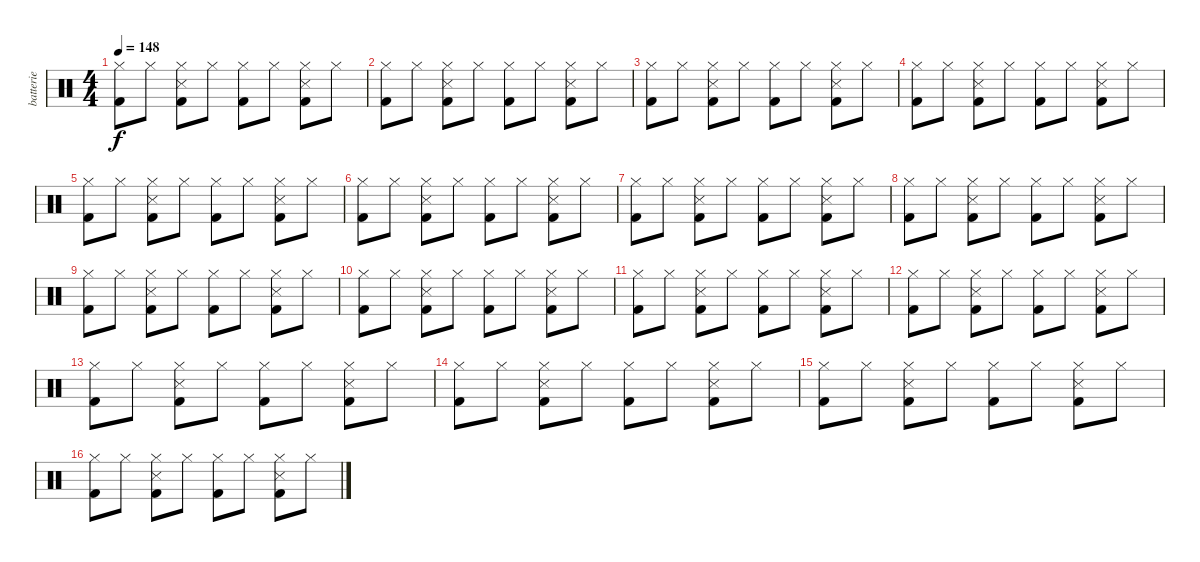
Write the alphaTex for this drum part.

\track ("batterie" "batterie") {instrument percussion}
\staff {score}
\articulation defaults
\ts (4 4)
\tempo 148
\clef neutral
\ks c
("Hi-Hat (closed)" "Kick (hit) 2").8{dy f} "Hi-Hat (closed)".8 ("Hi-Hat (closed)" "Snare (side stick) 3" "Kick (hit) 2").8 "Hi-Hat (closed)".8 ("Hi-Hat (closed)" "Kick (hit) 2").8 "Hi-Hat (closed)".8 ("Hi-Hat (closed)" "Snare (side stick) 3" "Kick (hit) 2").8 "Hi-Hat (closed)".8 |
("Hi-Hat (closed)" "Kick (hit) 2").8 "Hi-Hat (closed)".8 ("Hi-Hat (closed)" "Snare (side stick) 3" "Kick (hit) 2").8 "Hi-Hat (closed)".8 ("Hi-Hat (closed)" "Kick (hit) 2").8 "Hi-Hat (closed)".8 ("Hi-Hat (closed)" "Snare (side stick) 3" "Kick (hit) 2").8 "Hi-Hat (closed)".8 |
("Hi-Hat (closed)" "Kick (hit) 2").8 "Hi-Hat (closed)".8 ("Hi-Hat (closed)" "Snare (side stick) 3" "Kick (hit) 2").8 "Hi-Hat (closed)".8 ("Hi-Hat (closed)" "Kick (hit) 2").8 "Hi-Hat (closed)".8 ("Hi-Hat (closed)" "Snare (side stick) 3" "Kick (hit) 2").8 "Hi-Hat (closed)".8 |
("Hi-Hat (closed)" "Kick (hit) 2").8 "Hi-Hat (closed)".8 ("Hi-Hat (closed)" "Snare (side stick) 3" "Kick (hit) 2").8 "Hi-Hat (closed)".8 ("Hi-Hat (closed)" "Kick (hit) 2").8 "Hi-Hat (closed)".8 ("Hi-Hat (closed)" "Snare (side stick) 3" "Kick (hit) 2").8 "Hi-Hat (closed)".8 |
("Hi-Hat (closed)" "Kick (hit) 2").8 "Hi-Hat (closed)".8 ("Hi-Hat (closed)" "Snare (side stick) 3" "Kick (hit) 2").8 "Hi-Hat (closed)".8 ("Hi-Hat (closed)" "Kick (hit) 2").8 "Hi-Hat (closed)".8 ("Hi-Hat (closed)" "Snare (side stick) 3" "Kick (hit) 2").8 "Hi-Hat (closed)".8 |
("Hi-Hat (closed)" "Kick (hit) 2").8 "Hi-Hat (closed)".8 ("Hi-Hat (closed)" "Snare (side stick) 3" "Kick (hit) 2").8 "Hi-Hat (closed)".8 ("Hi-Hat (closed)" "Kick (hit) 2").8 "Hi-Hat (closed)".8 ("Hi-Hat (closed)" "Snare (side stick) 3" "Kick (hit) 2").8 "Hi-Hat (closed)".8 |
("Hi-Hat (closed)" "Kick (hit) 2").8 "Hi-Hat (closed)".8 ("Hi-Hat (closed)" "Snare (side stick) 3" "Kick (hit) 2").8 "Hi-Hat (closed)".8 ("Hi-Hat (closed)" "Kick (hit) 2").8 "Hi-Hat (closed)".8 ("Hi-Hat (closed)" "Snare (side stick) 3" "Kick (hit) 2").8 "Hi-Hat (closed)".8 |
("Hi-Hat (closed)" "Kick (hit) 2").8 "Hi-Hat (closed)".8 ("Hi-Hat (closed)" "Snare (side stick) 3" "Kick (hit) 2").8 "Hi-Hat (closed)".8 ("Hi-Hat (closed)" "Kick (hit) 2").8 "Hi-Hat (closed)".8 ("Hi-Hat (closed)" "Snare (side stick) 3" "Kick (hit) 2").8 "Hi-Hat (closed)".8 |
("Hi-Hat (closed)" "Kick (hit) 2").8 "Hi-Hat (closed)".8 ("Hi-Hat (closed)" "Snare (side stick) 3" "Kick (hit) 2").8 "Hi-Hat (closed)".8 ("Hi-Hat (closed)" "Kick (hit) 2").8 "Hi-Hat (closed)".8 ("Hi-Hat (closed)" "Snare (side stick) 3" "Kick (hit) 2").8 "Hi-Hat (closed)".8 |
("Hi-Hat (closed)" "Kick (hit) 2").8 "Hi-Hat (closed)".8 ("Hi-Hat (closed)" "Snare (side stick) 3" "Kick (hit) 2").8 "Hi-Hat (closed)".8 ("Hi-Hat (closed)" "Kick (hit) 2").8 "Hi-Hat (closed)".8 ("Hi-Hat (closed)" "Snare (side stick) 3" "Kick (hit) 2").8 "Hi-Hat (closed)".8 |
("Hi-Hat (closed)" "Kick (hit) 2").8 "Hi-Hat (closed)".8 ("Hi-Hat (closed)" "Snare (side stick) 3" "Kick (hit) 2").8 "Hi-Hat (closed)".8 ("Hi-Hat (closed)" "Kick (hit) 2").8 "Hi-Hat (closed)".8 ("Hi-Hat (closed)" "Snare (side stick) 3" "Kick (hit) 2").8 "Hi-Hat (closed)".8 |
("Hi-Hat (closed)" "Kick (hit) 2").8 "Hi-Hat (closed)".8 ("Hi-Hat (closed)" "Snare (side stick) 3" "Kick (hit) 2").8 "Hi-Hat (closed)".8 ("Hi-Hat (closed)" "Kick (hit) 2").8 "Hi-Hat (closed)".8 ("Hi-Hat (closed)" "Snare (side stick) 3" "Kick (hit) 2").8 "Hi-Hat (closed)".8 |
("Hi-Hat (closed)" "Kick (hit) 2").8 "Hi-Hat (closed)".8 ("Hi-Hat (closed)" "Snare (side stick) 3" "Kick (hit) 2").8 "Hi-Hat (closed)".8 ("Hi-Hat (closed)" "Kick (hit) 2").8 "Hi-Hat (closed)".8 ("Hi-Hat (closed)" "Snare (side stick) 3" "Kick (hit) 2").8 "Hi-Hat (closed)".8 |
("Hi-Hat (closed)" "Kick (hit) 2").8 "Hi-Hat (closed)".8 ("Hi-Hat (closed)" "Snare (side stick) 3" "Kick (hit) 2").8 "Hi-Hat (closed)".8 ("Hi-Hat (closed)" "Kick (hit) 2").8 "Hi-Hat (closed)".8 ("Hi-Hat (closed)" "Snare (side stick) 3" "Kick (hit) 2").8 "Hi-Hat (closed)".8 |
("Hi-Hat (closed)" "Kick (hit) 2").8 "Hi-Hat (closed)".8 ("Hi-Hat (closed)" "Snare (side stick) 3" "Kick (hit) 2").8 "Hi-Hat (closed)".8 ("Hi-Hat (closed)" "Kick (hit) 2").8 "Hi-Hat (closed)".8 ("Hi-Hat (closed)" "Snare (side stick) 3" "Kick (hit) 2").8 "Hi-Hat (closed)".8 |
("Hi-Hat (closed)" "Kick (hit) 2").8 "Hi-Hat (closed)".8 ("Hi-Hat (closed)" "Snare (side stick) 3" "Kick (hit) 2").8 "Hi-Hat (closed)".8 ("Hi-Hat (closed)" "Kick (hit) 2").8 "Hi-Hat (closed)".8 ("Hi-Hat (closed)" "Snare (side stick) 3" "Kick (hit) 2").8 "Hi-Hat (closed)".8
